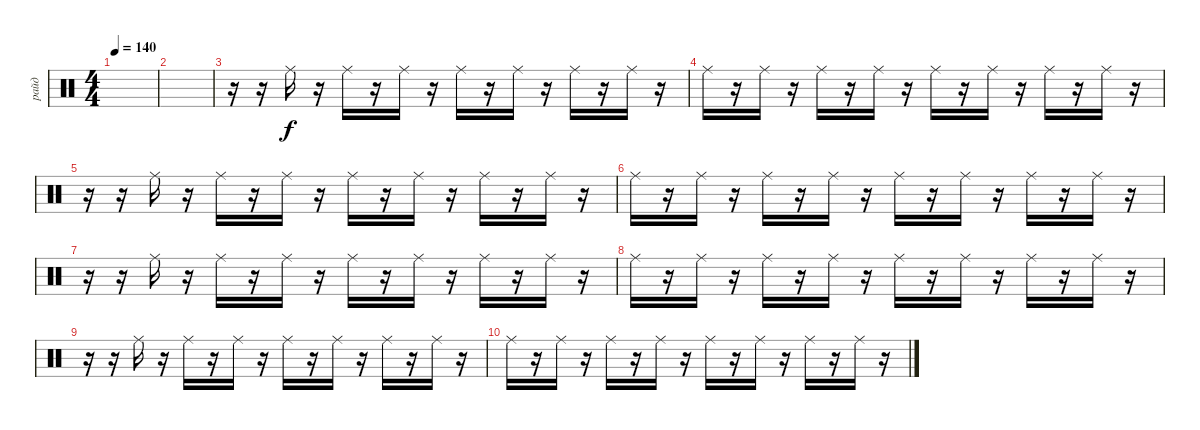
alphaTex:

\track ("райд" "райд") {mute instrument percussion}
\staff {score}
\articulation defaults
\ts (4 4)
\tempo 140
\clef neutral
\ks c
|
|
r.16 r.16 "Ride (middle)".16 r.16 "Ride (middle)".16 r.16 "Ride (middle)".16 r.16 "Ride (middle)".16 r.16 "Ride (middle)".16 r.16 "Ride (middle)".16 r.16 "Ride (middle)".16 r.16 |
"Ride (middle)".16 r.16 "Ride (middle)".16 r.16 "Ride (middle)".16 r.16 "Ride (middle)".16 r.16 "Ride (middle)".16 r.16 "Ride (middle)".16 r.16 "Ride (middle)".16 r.16 "Ride (middle)".16 r.16 |
r.16 r.16 "Ride (middle)".16 r.16 "Ride (middle)".16 r.16 "Ride (middle)".16 r.16 "Ride (middle)".16 r.16 "Ride (middle)".16 r.16 "Ride (middle)".16 r.16 "Ride (middle)".16 r.16 |
"Ride (middle)".16 r.16 "Ride (middle)".16 r.16 "Ride (middle)".16 r.16 "Ride (middle)".16 r.16 "Ride (middle)".16 r.16 "Ride (middle)".16 r.16 "Ride (middle)".16 r.16 "Ride (middle)".16 r.16 |
r.16 r.16 "Ride (middle)".16 r.16 "Ride (middle)".16 r.16 "Ride (middle)".16 r.16 "Ride (middle)".16 r.16 "Ride (middle)".16 r.16 "Ride (middle)".16 r.16 "Ride (middle)".16 r.16 |
"Ride (middle)".16 r.16 "Ride (middle)".16 r.16 "Ride (middle)".16 r.16 "Ride (middle)".16 r.16 "Ride (middle)".16 r.16 "Ride (middle)".16 r.16 "Ride (middle)".16 r.16 "Ride (middle)".16 r.16 |
r.16 r.16 "Ride (middle)".16 r.16 "Ride (middle)".16 r.16 "Ride (middle)".16 r.16 "Ride (middle)".16 r.16 "Ride (middle)".16 r.16 "Ride (middle)".16 r.16 "Ride (middle)".16 r.16 |
"Ride (middle)".16 r.16 "Ride (middle)".16 r.16 "Ride (middle)".16 r.16 "Ride (middle)".16 r.16 "Ride (middle)".16 r.16 "Ride (middle)".16 r.16 "Ride (middle)".16 r.16 "Ride (middle)".16 r.16
